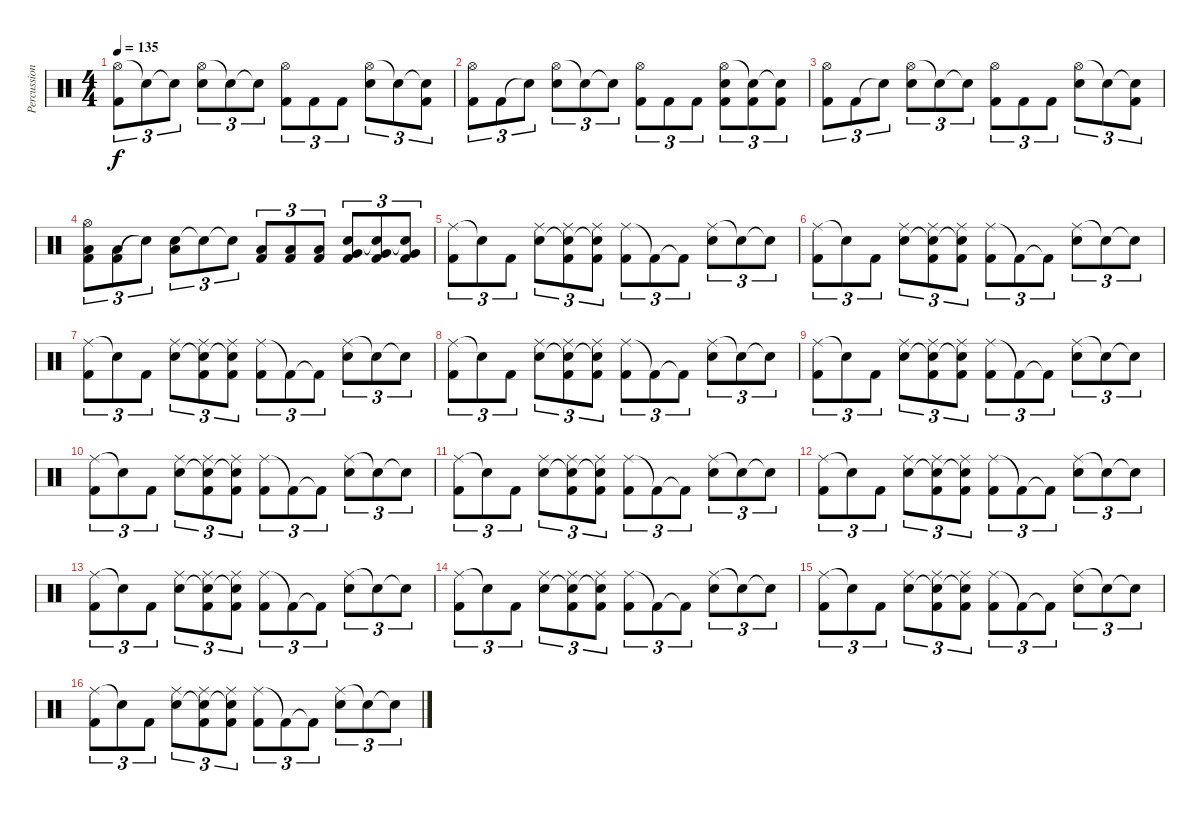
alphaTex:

\track ("Percussions" "Percussion") {instrument percussion}
\staff {score}
\articulation defaults
\ts (4 4)
\tempo 135
\clef neutral
\ks c
("Hi-Hat (open)" "Kick (hit) 2").8{tu (3 2) dy f} "Snare (hit)"{t}.8{tu (3 2)} "Snare (hit)"{t}.8{tu (3 2)} ("Hi-Hat (open)" "Snare (hit) 2").8{tu (3 2)} "Snare (hit)"{t}.8{tu (3 2)} "Snare (hit)"{t}.8{tu (3 2)} ("Hi-Hat (open)" "Kick (hit) 2").8{tu (3 2)} "Kick (hit) 2".8{tu (3 2)} "Kick (hit) 2".8{tu (3 2)} ("Hi-Hat (open)" "Snare (hit) 2").8{tu (3 2)} "Snare (hit)"{t}.8{tu (3 2)} ("Snare (hit)"{t} "Kick (hit) 2").8{tu (3 2)} |
("Hi-Hat (open)" "Kick (hit) 2").8{tu (3 2)} "Kick (hit) 2".8{tu (3 2)} "Snare (hit)"{t}.8{tu (3 2)} ("Hi-Hat (open)" "Snare (hit) 2").8{tu (3 2)} "Snare (hit)"{t}.8{tu (3 2)} "Snare (hit)"{t}.8{tu (3 2)} ("Hi-Hat (open)" "Kick (hit) 2").8{tu (3 2)} "Kick (hit) 2".8{tu (3 2)} "Kick (hit) 2".8{tu (3 2)} ("Hi-Hat (open)" "Snare (hit) 2" "Kick (hit) 2").8{tu (3 2)} ("Snare (hit)"{t} "Kick (hit) 2").8{tu (3 2)} ("Snare (hit)"{t} "Kick (hit) 2").8{tu (3 2)} |
("Hi-Hat (open)" "Kick (hit) 2").8{tu (3 2)} "Kick (hit) 2".8{tu (3 2)} "Snare (hit)"{t}.8{tu (3 2)} ("Hi-Hat (open)" "Snare (hit) 2").8{tu (3 2)} "Snare (hit)"{t}.8{tu (3 2)} "Snare (hit)"{t}.8{tu (3 2)} ("Hi-Hat (open)" "Kick (hit) 2").8{tu (3 2)} "Kick (hit) 2".8{tu (3 2)} "Kick (hit) 2".8{tu (3 2)} ("Hi-Hat (open)" "Snare (hit) 2").8{tu (3 2)} "Snare (hit)"{t}.8{tu (3 2)} ("Snare (hit)"{t} "Kick (hit) 2").8{tu (3 2)} |
("Hi-Hat (open)" "Kick (hit) 2" "Low Floor Tom (hit)").8{tu (3 2)} ("Kick (hit) 2" "Low Floor Tom (hit)").8{tu (3 2)} "Snare (hit)"{t}.8{tu (3 2)} ("Snare (hit) 2" "Low Floor Tom (hit)").8{tu (3 2)} "Snare (hit)"{t}.8{tu (3 2)} "Snare (hit)"{t}.8{tu (3 2)} ("Kick (hit) 2" "Low Tom (hit)").8{tu (3 2)} ("Kick (hit) 2" "Low Tom (hit)").8{tu (3 2)} ("Kick (hit) 2" "Low Tom (hit)").8{tu (3 2)} ("Snare (hit) 2" "Kick (hit) 2" "Very Low Tom (hit)").8{tu (3 2)} ("Snare (hit)"{t} "Kick (hit) 2" "Very Low Tom (hit)").8{tu (3 2)} ("Snare (hit)"{t} "Kick (hit) 2" "Very Low Tom (hit)").8{tu (3 2)} |
("Ride (middle)" "Kick (hit) 2").8{tu (3 2)} "Snare (hit)"{t}.8{tu (3 2)} "Kick (hit) 2".8{tu (3 2)} ("Ride (middle)" "Snare (hit) 2").8{tu (3 2)} ("Ride (middle)" "Snare (hit)"{t} "Kick (hit) 2").8{tu (3 2)} ("Ride (middle)" "Snare (hit)"{t} "Kick (hit) 2").8{tu (3 2)} ("Ride (middle)" "Kick (hit) 2").8{tu (3 2)} "Kick (hit) 2"{t}.8{tu (3 2)} "Kick (hit) 2"{t}.8{tu (3 2)} ("Ride (middle)" "Snare (hit) 2").8{tu (3 2)} "Snare (hit)"{t}.8{tu (3 2)} "Snare (hit)"{t}.8{tu (3 2)} |
("Ride (middle)" "Kick (hit) 2").8{tu (3 2)} "Snare (hit)"{t}.8{tu (3 2)} "Kick (hit) 2".8{tu (3 2)} ("Ride (middle)" "Snare (hit) 2").8{tu (3 2)} ("Ride (middle)" "Snare (hit)"{t} "Kick (hit) 2").8{tu (3 2)} ("Ride (middle)" "Snare (hit)"{t} "Kick (hit) 2").8{tu (3 2)} ("Ride (middle)" "Kick (hit) 2").8{tu (3 2)} "Kick (hit) 2"{t}.8{tu (3 2)} "Kick (hit) 2"{t}.8{tu (3 2)} ("Ride (middle)" "Snare (hit) 2").8{tu (3 2)} "Snare (hit)"{t}.8{tu (3 2)} "Snare (hit)"{t}.8{tu (3 2)} |
("Ride (middle)" "Kick (hit) 2").8{tu (3 2)} "Snare (hit)"{t}.8{tu (3 2)} "Kick (hit) 2".8{tu (3 2)} ("Ride (middle)" "Snare (hit) 2").8{tu (3 2)} ("Ride (middle)" "Snare (hit)"{t} "Kick (hit) 2").8{tu (3 2)} ("Ride (middle)" "Snare (hit)"{t} "Kick (hit) 2").8{tu (3 2)} ("Ride (middle)" "Kick (hit) 2").8{tu (3 2)} "Kick (hit) 2"{t}.8{tu (3 2)} "Kick (hit) 2"{t}.8{tu (3 2)} ("Ride (middle)" "Snare (hit) 2").8{tu (3 2)} "Snare (hit)"{t}.8{tu (3 2)} "Snare (hit)"{t}.8{tu (3 2)} |
("Ride (middle)" "Kick (hit) 2").8{tu (3 2)} "Snare (hit)"{t}.8{tu (3 2)} "Kick (hit) 2".8{tu (3 2)} ("Ride (middle)" "Snare (hit) 2").8{tu (3 2)} ("Ride (middle)" "Snare (hit)"{t} "Kick (hit) 2").8{tu (3 2)} ("Ride (middle)" "Snare (hit)"{t} "Kick (hit) 2").8{tu (3 2)} ("Ride (middle)" "Kick (hit) 2").8{tu (3 2)} "Kick (hit) 2"{t}.8{tu (3 2)} "Kick (hit) 2"{t}.8{tu (3 2)} ("Ride (middle)" "Snare (hit) 2").8{tu (3 2)} "Snare (hit)"{t}.8{tu (3 2)} "Snare (hit)"{t}.8{tu (3 2)} |
("Ride (middle)" "Kick (hit) 2").8{tu (3 2)} "Snare (hit)"{t}.8{tu (3 2)} "Kick (hit) 2".8{tu (3 2)} ("Ride (middle)" "Snare (hit) 2").8{tu (3 2)} ("Ride (middle)" "Snare (hit)"{t} "Kick (hit) 2").8{tu (3 2)} ("Ride (middle)" "Snare (hit)"{t} "Kick (hit) 2").8{tu (3 2)} ("Ride (middle)" "Kick (hit) 2").8{tu (3 2)} "Kick (hit) 2"{t}.8{tu (3 2)} "Kick (hit) 2"{t}.8{tu (3 2)} ("Ride (middle)" "Snare (hit) 2").8{tu (3 2)} "Snare (hit)"{t}.8{tu (3 2)} "Snare (hit)"{t}.8{tu (3 2)} |
("Ride (middle)" "Kick (hit) 2").8{tu (3 2)} "Snare (hit)"{t}.8{tu (3 2)} "Kick (hit) 2".8{tu (3 2)} ("Ride (middle)" "Snare (hit) 2").8{tu (3 2)} ("Ride (middle)" "Snare (hit)"{t} "Kick (hit) 2").8{tu (3 2)} ("Ride (middle)" "Snare (hit)"{t} "Kick (hit) 2").8{tu (3 2)} ("Ride (middle)" "Kick (hit) 2").8{tu (3 2)} "Kick (hit) 2"{t}.8{tu (3 2)} "Kick (hit) 2"{t}.8{tu (3 2)} ("Ride (middle)" "Snare (hit) 2").8{tu (3 2)} "Snare (hit)"{t}.8{tu (3 2)} "Snare (hit)"{t}.8{tu (3 2)} |
("Ride (middle)" "Kick (hit) 2").8{tu (3 2)} "Snare (hit)"{t}.8{tu (3 2)} "Kick (hit) 2".8{tu (3 2)} ("Ride (middle)" "Snare (hit) 2").8{tu (3 2)} ("Ride (middle)" "Snare (hit)"{t} "Kick (hit) 2").8{tu (3 2)} ("Ride (middle)" "Snare (hit)"{t} "Kick (hit) 2").8{tu (3 2)} ("Ride (middle)" "Kick (hit) 2").8{tu (3 2)} "Kick (hit) 2"{t}.8{tu (3 2)} "Kick (hit) 2"{t}.8{tu (3 2)} ("Ride (middle)" "Snare (hit) 2").8{tu (3 2)} "Snare (hit)"{t}.8{tu (3 2)} "Snare (hit)"{t}.8{tu (3 2)} |
("Ride (middle)" "Kick (hit) 2").8{tu (3 2)} "Snare (hit)"{t}.8{tu (3 2)} "Kick (hit) 2".8{tu (3 2)} ("Ride (middle)" "Snare (hit) 2").8{tu (3 2)} ("Ride (middle)" "Snare (hit)"{t} "Kick (hit) 2").8{tu (3 2)} ("Ride (middle)" "Snare (hit)"{t} "Kick (hit) 2").8{tu (3 2)} ("Ride (middle)" "Kick (hit) 2").8{tu (3 2)} "Kick (hit) 2"{t}.8{tu (3 2)} "Kick (hit) 2"{t}.8{tu (3 2)} ("Ride (middle)" "Snare (hit) 2").8{tu (3 2)} "Snare (hit)"{t}.8{tu (3 2)} "Snare (hit)"{t}.8{tu (3 2)} |
("Ride (middle)" "Kick (hit) 2").8{tu (3 2)} "Snare (hit)"{t}.8{tu (3 2)} "Kick (hit) 2".8{tu (3 2)} ("Ride (middle)" "Snare (hit) 2").8{tu (3 2)} ("Ride (middle)" "Snare (hit)"{t} "Kick (hit) 2").8{tu (3 2)} ("Ride (middle)" "Snare (hit)"{t} "Kick (hit) 2").8{tu (3 2)} ("Ride (middle)" "Kick (hit) 2").8{tu (3 2)} "Kick (hit) 2"{t}.8{tu (3 2)} "Kick (hit) 2"{t}.8{tu (3 2)} ("Ride (middle)" "Snare (hit) 2").8{tu (3 2)} "Snare (hit)"{t}.8{tu (3 2)} "Snare (hit)"{t}.8{tu (3 2)} |
("Ride (middle)" "Kick (hit) 2").8{tu (3 2)} "Snare (hit)"{t}.8{tu (3 2)} "Kick (hit) 2".8{tu (3 2)} ("Ride (middle)" "Snare (hit) 2").8{tu (3 2)} ("Ride (middle)" "Snare (hit)"{t} "Kick (hit) 2").8{tu (3 2)} ("Ride (middle)" "Snare (hit)"{t} "Kick (hit) 2").8{tu (3 2)} ("Ride (middle)" "Kick (hit) 2").8{tu (3 2)} "Kick (hit) 2"{t}.8{tu (3 2)} "Kick (hit) 2"{t}.8{tu (3 2)} ("Ride (middle)" "Snare (hit) 2").8{tu (3 2)} "Snare (hit)"{t}.8{tu (3 2)} "Snare (hit)"{t}.8{tu (3 2)} |
("Ride (middle)" "Kick (hit) 2").8{tu (3 2)} "Snare (hit)"{t}.8{tu (3 2)} "Kick (hit) 2".8{tu (3 2)} ("Ride (middle)" "Snare (hit) 2").8{tu (3 2)} ("Ride (middle)" "Snare (hit)"{t} "Kick (hit) 2").8{tu (3 2)} ("Ride (middle)" "Snare (hit)"{t} "Kick (hit) 2").8{tu (3 2)} ("Ride (middle)" "Kick (hit) 2").8{tu (3 2)} "Kick (hit) 2"{t}.8{tu (3 2)} "Kick (hit) 2"{t}.8{tu (3 2)} ("Ride (middle)" "Snare (hit) 2").8{tu (3 2)} "Snare (hit)"{t}.8{tu (3 2)} "Snare (hit)"{t}.8{tu (3 2)} |
("Ride (middle)" "Kick (hit) 2").8{tu (3 2)} "Snare (hit)"{t}.8{tu (3 2)} "Kick (hit) 2".8{tu (3 2)} ("Ride (middle)" "Snare (hit) 2").8{tu (3 2)} ("Ride (middle)" "Snare (hit)"{t} "Kick (hit) 2").8{tu (3 2)} ("Ride (middle)" "Snare (hit)"{t} "Kick (hit) 2").8{tu (3 2)} ("Ride (middle)" "Kick (hit) 2").8{tu (3 2)} "Kick (hit) 2"{t}.8{tu (3 2)} "Kick (hit) 2"{t}.8{tu (3 2)} ("Ride (middle)" "Snare (hit) 2").8{tu (3 2)} "Snare (hit)"{t}.8{tu (3 2)} "Snare (hit)"{t}.8{tu (3 2)}
